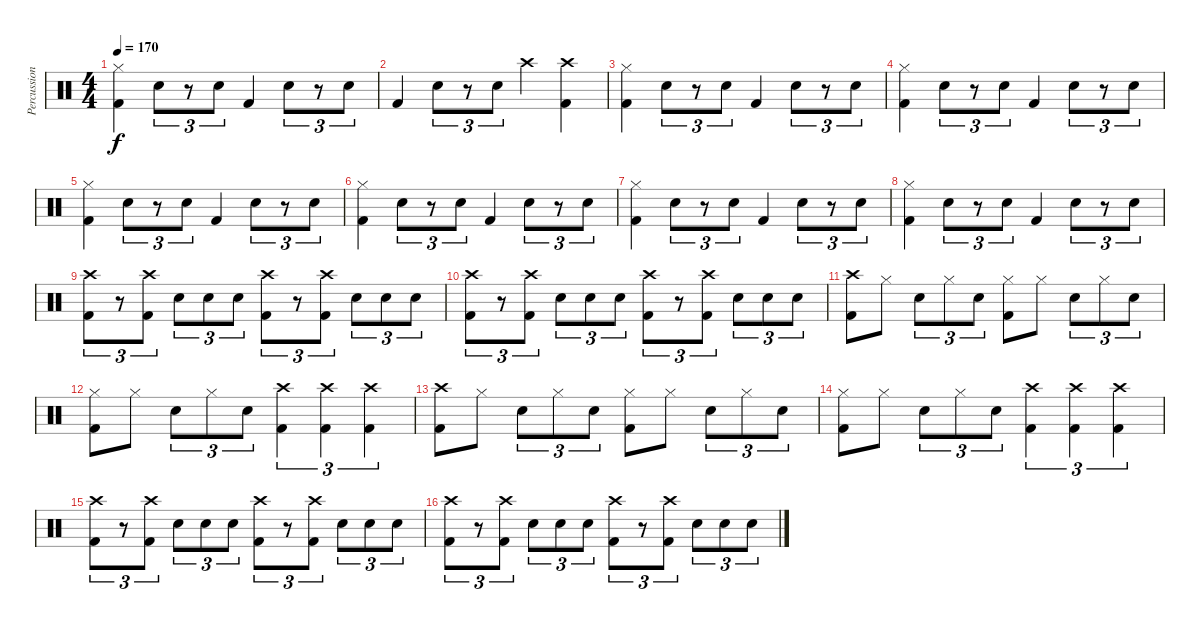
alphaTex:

\track ("Percussion" "Percussion") {instrument percussion}
\staff {score}
\articulation defaults
\ts (4 4)
\tempo 170
\clef neutral
\ks c
("Hi-Hat (closed)" "Kick (hit) 2").4{dy f} "Snare (hit) 2".8{tu (3 2)} r.8{tu (3 2)} "Snare (hit) 2".8{tu (3 2)} "Kick (hit) 2".4 "Snare (hit) 2".8{tu (3 2)} r.8{tu (3 2)} "Snare (hit) 2".8{tu (3 2)} |
"Kick (hit) 2".4 "Snare (hit) 2".8{tu (3 2)} r.8{tu (3 2)} "Snare (hit) 2".8{tu (3 2)} "Crash high (hit)".4 ("Crash high (hit)" "Kick (hit) 2").4 |
("Hi-Hat (closed)" "Kick (hit) 2").4 "Snare (hit) 2".8{tu (3 2)} r.8{tu (3 2)} "Snare (hit) 2".8{tu (3 2)} "Kick (hit) 2".4 "Snare (hit) 2".8{tu (3 2)} r.8{tu (3 2)} "Snare (hit) 2".8{tu (3 2)} |
("Hi-Hat (closed)" "Kick (hit) 2").4 "Snare (hit) 2".8{tu (3 2)} r.8{tu (3 2)} "Snare (hit) 2".8{tu (3 2)} "Kick (hit) 2".4 "Snare (hit) 2".8{tu (3 2)} r.8{tu (3 2)} "Snare (hit) 2".8{tu (3 2)} |
("Hi-Hat (closed)" "Kick (hit) 2").4 "Snare (hit) 2".8{tu (3 2)} r.8{tu (3 2)} "Snare (hit) 2".8{tu (3 2)} "Kick (hit) 2".4 "Snare (hit) 2".8{tu (3 2)} r.8{tu (3 2)} "Snare (hit) 2".8{tu (3 2)} |
("Hi-Hat (closed)" "Kick (hit) 2").4 "Snare (hit) 2".8{tu (3 2)} r.8{tu (3 2)} "Snare (hit) 2".8{tu (3 2)} "Kick (hit) 2".4 "Snare (hit) 2".8{tu (3 2)} r.8{tu (3 2)} "Snare (hit) 2".8{tu (3 2)} |
("Hi-Hat (closed)" "Kick (hit) 2").4 "Snare (hit) 2".8{tu (3 2)} r.8{tu (3 2)} "Snare (hit) 2".8{tu (3 2)} "Kick (hit) 2".4 "Snare (hit) 2".8{tu (3 2)} r.8{tu (3 2)} "Snare (hit) 2".8{tu (3 2)} |
("Hi-Hat (closed)" "Kick (hit) 2").4 "Snare (hit) 2".8{tu (3 2)} r.8{tu (3 2)} "Snare (hit) 2".8{tu (3 2)} "Kick (hit) 2".4 "Snare (hit) 2".8{tu (3 2)} r.8{tu (3 2)} "Snare (hit) 2".8{tu (3 2)} |
("Crash high (hit)" "Kick (hit) 2").8{tu (3 2)} r.8{tu (3 2)} ("Crash high (hit)" "Kick (hit) 2").8{tu (3 2)} "Snare (hit) 2".8{tu (3 2)} "Snare (hit) 2".8{tu (3 2)} "Snare (hit) 2".8{tu (3 2)} ("Crash high (hit)" "Kick (hit) 2").8{tu (3 2)} r.8{tu (3 2)} ("Crash high (hit)" "Kick (hit) 2").8{tu (3 2)} "Snare (hit) 2".8{tu (3 2)} "Snare (hit) 2".8{tu (3 2)} "Snare (hit) 2".8{tu (3 2)} |
("Crash high (hit)" "Kick (hit) 2").8{tu (3 2)} r.8{tu (3 2)} ("Crash high (hit)" "Kick (hit) 2").8{tu (3 2)} "Snare (hit) 2".8{tu (3 2)} "Snare (hit) 2".8{tu (3 2)} "Snare (hit) 2".8{tu (3 2)} ("Crash high (hit)" "Kick (hit) 2").8{tu (3 2)} r.8{tu (3 2)} ("Crash high (hit)" "Kick (hit) 2").8{tu (3 2)} "Snare (hit) 2".8{tu (3 2)} "Snare (hit) 2".8{tu (3 2)} "Snare (hit) 2".8{tu (3 2)} |
("Crash high (hit)" "Kick (hit) 2").8 "Hi-Hat (closed)".8 "Snare (hit) 2".8{tu (3 2)} "Hi-Hat (closed)".8{tu (3 2)} "Snare (hit) 2".8{tu (3 2)} ("Hi-Hat (closed)" "Kick (hit) 2").8 "Hi-Hat (closed)".8 "Snare (hit) 2".8{tu (3 2)} "Hi-Hat (closed)".8{tu (3 2)} "Snare (hit) 2".8{tu (3 2)} |
("Hi-Hat (closed)" "Kick (hit) 2").8 "Hi-Hat (closed)".8 "Snare (hit) 2".8{tu (3 2)} "Hi-Hat (closed)".8{tu (3 2)} "Snare (hit) 2".8{tu (3 2)} ("Crash high (hit)" "Kick (hit) 2").4{tu (3 2)} ("Crash high (hit)" "Kick (hit) 2").4{tu (3 2)} ("Crash high (hit)" "Kick (hit) 2").4{tu (3 2)} |
("Crash high (hit)" "Kick (hit) 2").8 "Hi-Hat (closed)".8 "Snare (hit) 2".8{tu (3 2)} "Hi-Hat (closed)".8{tu (3 2)} "Snare (hit) 2".8{tu (3 2)} ("Hi-Hat (closed)" "Kick (hit) 2").8 "Hi-Hat (closed)".8 "Snare (hit) 2".8{tu (3 2)} "Hi-Hat (closed)".8{tu (3 2)} "Snare (hit) 2".8{tu (3 2)} |
("Hi-Hat (closed)" "Kick (hit) 2").8 "Hi-Hat (closed)".8 "Snare (hit) 2".8{tu (3 2)} "Hi-Hat (closed)".8{tu (3 2)} "Snare (hit) 2".8{tu (3 2)} ("Crash high (hit)" "Kick (hit) 2").4{tu (3 2)} ("Crash high (hit)" "Kick (hit) 2").4{tu (3 2)} ("Crash high (hit)" "Kick (hit) 2").4{tu (3 2)} |
("Crash high (hit)" "Kick (hit) 2").8{tu (3 2)} r.8{tu (3 2)} ("Crash high (hit)" "Kick (hit) 2").8{tu (3 2)} "Snare (hit) 2".8{tu (3 2)} "Snare (hit) 2".8{tu (3 2)} "Snare (hit) 2".8{tu (3 2)} ("Crash high (hit)" "Kick (hit) 2").8{tu (3 2)} r.8{tu (3 2)} ("Crash high (hit)" "Kick (hit) 2").8{tu (3 2)} "Snare (hit) 2".8{tu (3 2)} "Snare (hit) 2".8{tu (3 2)} "Snare (hit) 2".8{tu (3 2)} |
("Crash high (hit)" "Kick (hit) 2").8{tu (3 2)} r.8{tu (3 2)} ("Crash high (hit)" "Kick (hit) 2").8{tu (3 2)} "Snare (hit) 2".8{tu (3 2)} "Snare (hit) 2".8{tu (3 2)} "Snare (hit) 2".8{tu (3 2)} ("Crash high (hit)" "Kick (hit) 2").8{tu (3 2)} r.8{tu (3 2)} ("Crash high (hit)" "Kick (hit) 2").8{tu (3 2)} "Snare (hit) 2".8{tu (3 2)} "Snare (hit) 2".8{tu (3 2)} "Snare (hit) 2".8{tu (3 2)}
